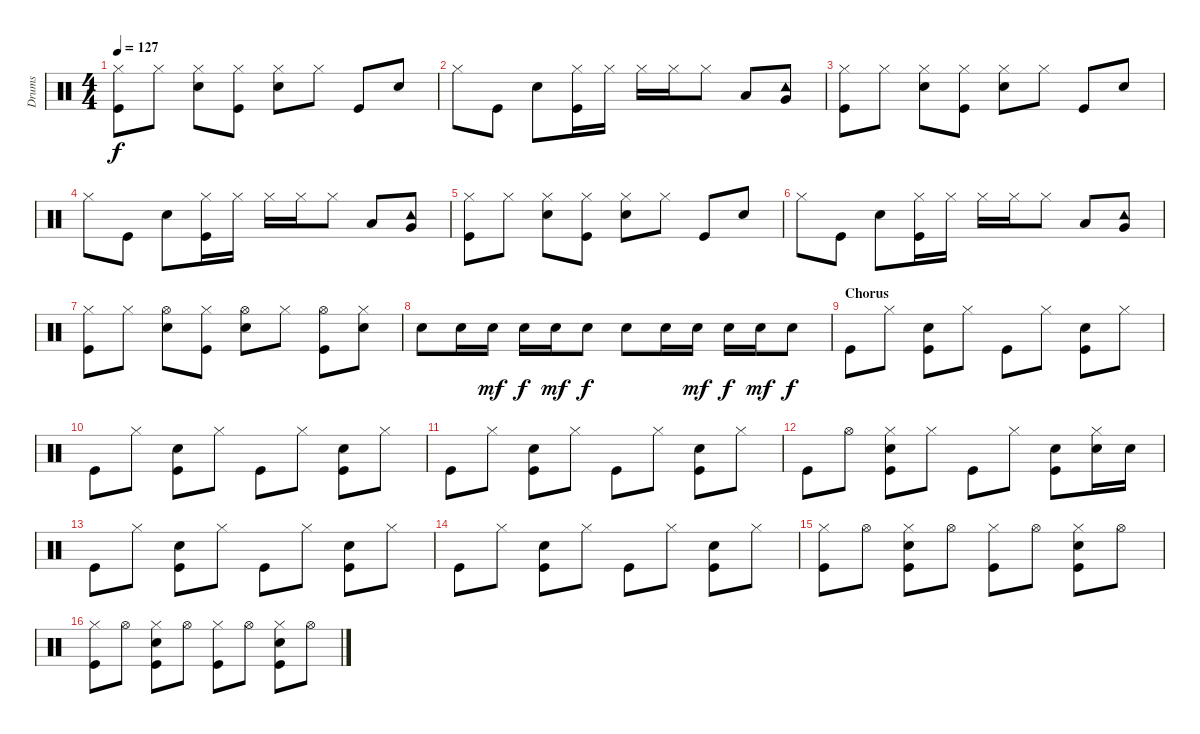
\track ("Drums" "Drums") {instrument percussion}
\staff {score}
\articulation defaults
\ts (4 4)
\tempo 127
\clef neutral
\ks c
("Hi-Hat (closed)" "Kick (hit)").8{dy f} "Hi-Hat (closed)".8 ("Hi-Hat (closed)" "Snare (hit) 2").8 ("Hi-Hat (closed)" "Kick (hit)").8 ("Hi-Hat (closed)" "Snare (hit) 2").8 "Hi-Hat (closed)".8 "Kick (hit)".8 "Snare (hit) 2".8 |
"Hi-Hat (closed)".8 "Kick (hit)".8 "Snare (hit) 2".8 ("Hi-Hat (closed)" "Kick (hit)").16 "Hi-Hat (closed)".16 "Hi-Hat (closed)".16 "Hi-Hat (closed)".16 "Hi-Hat (closed)".8 "Low Tom (hit)".8 ("Tambourine (hit)" "Very Low Tom (hit)").8 |
("Hi-Hat (closed)" "Kick (hit)").8 "Hi-Hat (closed)".8 ("Hi-Hat (closed)" "Snare (hit) 2").8 ("Hi-Hat (closed)" "Kick (hit)").8 ("Hi-Hat (closed)" "Snare (hit) 2").8 "Hi-Hat (closed)".8 "Kick (hit)".8 "Snare (hit) 2".8 |
"Hi-Hat (closed)".8 "Kick (hit)".8 "Snare (hit) 2".8 ("Hi-Hat (closed)" "Kick (hit)").16 "Hi-Hat (closed)".16 "Hi-Hat (closed)".16 "Hi-Hat (closed)".16 "Hi-Hat (closed)".8 "Low Tom (hit)".8 ("Tambourine (hit)" "Very Low Tom (hit)").8 |
("Hi-Hat (closed)" "Kick (hit)").8 "Hi-Hat (closed)".8 ("Hi-Hat (closed)" "Snare (hit) 2").8 ("Hi-Hat (closed)" "Kick (hit)").8 ("Hi-Hat (closed)" "Snare (hit) 2").8 "Hi-Hat (closed)".8 "Kick (hit)".8 "Snare (hit) 2".8 |
"Hi-Hat (closed)".8 "Kick (hit)".8 "Snare (hit) 2".8 ("Hi-Hat (closed)" "Kick (hit)").16 "Hi-Hat (closed)".16 "Hi-Hat (closed)".16 "Hi-Hat (closed)".16 "Hi-Hat (closed)".8 "Low Tom (hit)".8 ("Tambourine (hit)" "Very Low Tom (hit)").8 |
("Hi-Hat (closed)" "Kick (hit)").8 "Hi-Hat (closed)".8 ("Hi-Hat (open)" "Snare (hit) 2").8 ("Hi-Hat (closed)" "Kick (hit)").8 ("Hi-Hat (open)" "Snare (hit) 2").8 "Hi-Hat (closed)".8 ("Hi-Hat (open)" "Kick (hit)").8 ("Hi-Hat (closed)" "Snare (hit) 2").8 |
"Snare (hit) 2".8 "Snare (hit) 2".16 "Snare (hit) 2".16{dy mf} "Snare (hit) 2".16{dy f} "Snare (hit) 2".16{dy mf} "Snare (hit) 2".8{dy f} "Snare (hit) 2".8 "Snare (hit) 2".16 "Snare (hit) 2".16{dy mf} "Snare (hit) 2".16{dy f} "Snare (hit) 2".16{dy mf} "Snare (hit) 2".8{dy f} |
\section ("" "Chorus")
"Kick (hit)".8 "Hi-Hat (closed)".8 ("Snare (hit) 2" "Kick (hit)").8 "Hi-Hat (closed)".8 "Kick (hit)".8 "Hi-Hat (closed)".8 ("Snare (hit) 2" "Kick (hit)").8 "Hi-Hat (closed)".8 |
"Kick (hit)".8 "Hi-Hat (closed)".8 ("Snare (hit) 2" "Kick (hit)").8 "Hi-Hat (closed)".8 "Kick (hit)".8 "Hi-Hat (closed)".8 ("Snare (hit) 2" "Kick (hit)").8 "Hi-Hat (closed)".8 |
"Kick (hit)".8 "Hi-Hat (closed)".8 ("Snare (hit) 2" "Kick (hit)").8 "Hi-Hat (closed)".8 "Kick (hit)".8 "Hi-Hat (closed)".8 ("Snare (hit) 2" "Kick (hit)").8 "Hi-Hat (closed)".8 |
"Kick (hit)".8 "Hi-Hat (open)".8 ("Hi-Hat (closed)" "Snare (hit) 2" "Kick (hit)").8 "Hi-Hat (closed)".8 "Kick (hit)".8 "Hi-Hat (closed)".8 ("Snare (hit) 2" "Kick (hit)").8 ("Hi-Hat (closed)" "Snare (hit) 2").16 "Snare (hit) 2".16 |
"Kick (hit)".8 "Hi-Hat (closed)".8 ("Snare (hit) 2" "Kick (hit)").8 "Hi-Hat (closed)".8 "Kick (hit)".8 "Hi-Hat (closed)".8 ("Snare (hit) 2" "Kick (hit)").8 "Hi-Hat (closed)".8 |
"Kick (hit)".8 "Hi-Hat (closed)".8 ("Snare (hit) 2" "Kick (hit)").8 "Hi-Hat (closed)".8 "Kick (hit)".8 "Hi-Hat (closed)".8 ("Snare (hit) 2" "Kick (hit)").8 "Hi-Hat (closed)".8 |
("Hi-Hat (closed)" "Kick (hit)").8 "Hi-Hat (open)".8 ("Hi-Hat (closed)" "Snare (hit) 2" "Kick (hit)").8 "Hi-Hat (open)".8 ("Hi-Hat (closed)" "Kick (hit)").8 "Hi-Hat (open)".8 ("Hi-Hat (closed)" "Snare (hit) 2" "Kick (hit)").8 "Hi-Hat (open)".8 |
("Hi-Hat (closed)" "Kick (hit)").8 "Hi-Hat (open)".8 ("Hi-Hat (closed)" "Snare (hit) 2" "Kick (hit)").8 "Hi-Hat (open)".8 ("Hi-Hat (closed)" "Kick (hit)").8 "Hi-Hat (open)".8 ("Hi-Hat (closed)" "Snare (hit) 2" "Kick (hit)").8 "Hi-Hat (open)".8
